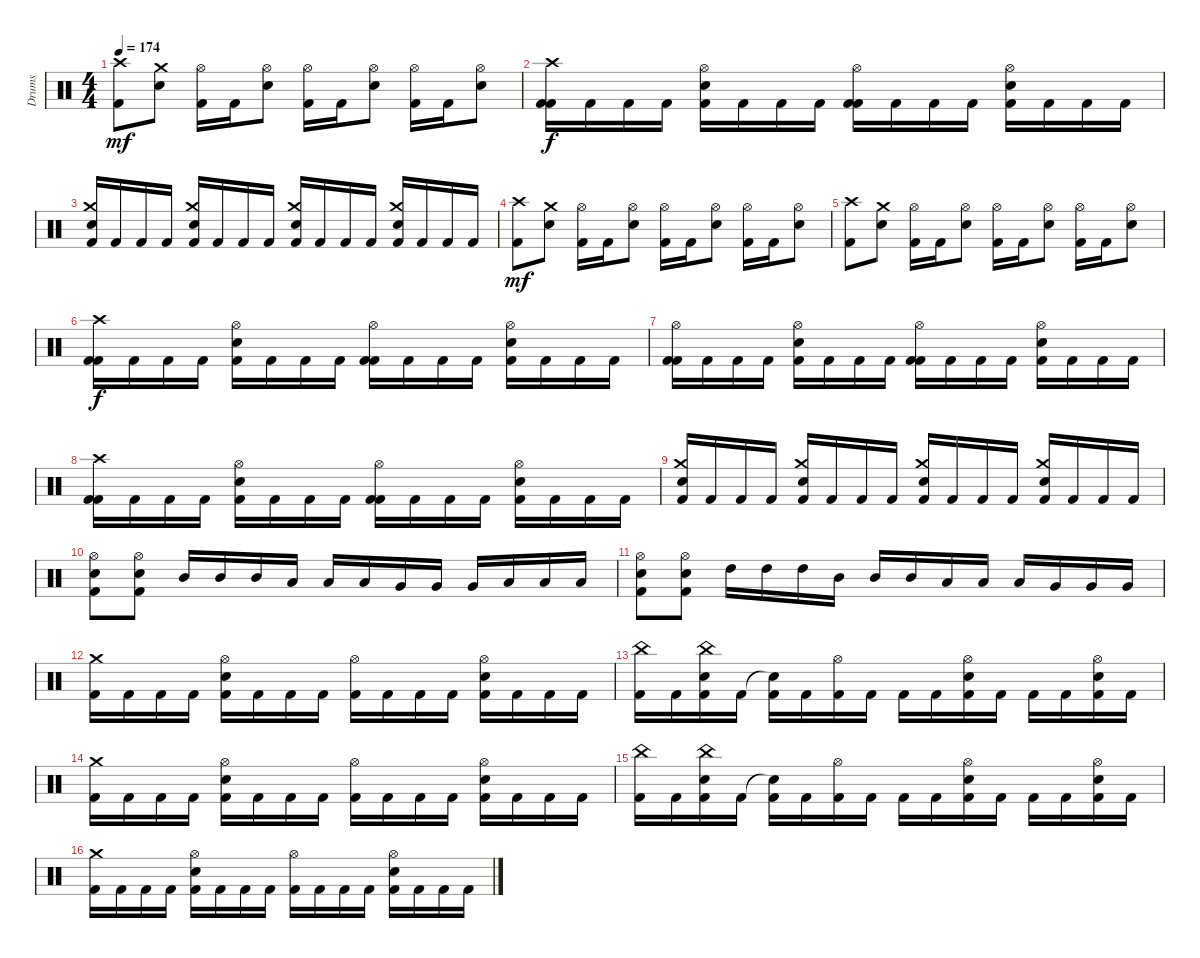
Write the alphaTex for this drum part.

\track ("Drums" "Drums") {instrument percussion}
\staff {score}
\articulation defaults
\ts (4 4)
\tempo 174
\clef neutral
\ks c
("Crash high (hit)" "Kick (hit) 2").8{dy mf} ("Crash medium (hit)" "Electric Snare (hit)").8 ("Hi-Hat (open)" "Kick (hit) 2").16 "Kick (hit) 2".16 ("Hi-Hat (open)" "Electric Snare (hit)").8 ("Hi-Hat (open)" "Kick (hit) 2").16 "Kick (hit) 2".16 ("Hi-Hat (open)" "Electric Snare (hit)").8 ("Hi-Hat (open)" "Kick (hit) 2").16 "Kick (hit) 2".16 ("Hi-Hat (open)" "Electric Snare (hit)").8 |
("Crash high (hit)" "Kick (hit) 2" "Kick (hit) 2").16{dy f} "Kick (hit) 2".16 "Kick (hit) 2".16 "Kick (hit) 2".16 ("Hi-Hat (open)" "Electric Snare (hit)" "Kick (hit) 2").16 "Kick (hit) 2".16 "Kick (hit) 2".16 "Kick (hit) 2".16 ("Hi-Hat (open)" "Kick (hit) 2" "Kick (hit) 2").16 "Kick (hit) 2".16 "Kick (hit) 2".16 "Kick (hit) 2".16 ("Hi-Hat (open)" "Electric Snare (hit)" "Kick (hit) 2").16 "Kick (hit) 2".16 "Kick (hit) 2".16 "Kick (hit) 2".16 |
("Crash medium (hit)" "Electric Snare (hit)" "Kick (hit) 2").16 "Kick (hit) 2".16 "Kick (hit) 2".16 "Kick (hit) 2".16 ("Crash medium (hit)" "Electric Snare (hit)" "Kick (hit) 2").16 "Kick (hit) 2".16 "Kick (hit) 2".16 "Kick (hit) 2".16 ("Crash medium (hit)" "Electric Snare (hit)" "Kick (hit) 2").16 "Kick (hit) 2".16 "Kick (hit) 2".16 "Kick (hit) 2".16 ("Crash medium (hit)" "Electric Snare (hit)" "Kick (hit) 2").16 "Kick (hit) 2".16 "Kick (hit) 2".16 "Kick (hit) 2".16 |
("Crash high (hit)" "Kick (hit) 2").8{dy mf} ("Crash medium (hit)" "Electric Snare (hit)").8 ("Hi-Hat (open)" "Kick (hit) 2").16 "Kick (hit) 2".16 ("Hi-Hat (open)" "Electric Snare (hit)").8 ("Hi-Hat (open)" "Kick (hit) 2").16 "Kick (hit) 2".16 ("Hi-Hat (open)" "Electric Snare (hit)").8 ("Hi-Hat (open)" "Kick (hit) 2").16 "Kick (hit) 2".16 ("Hi-Hat (open)" "Electric Snare (hit)").8 |
("Crash high (hit)" "Kick (hit) 2").8 ("Crash medium (hit)" "Electric Snare (hit)").8 ("Hi-Hat (open)" "Kick (hit) 2").16 "Kick (hit) 2".16 ("Hi-Hat (open)" "Electric Snare (hit)").8 ("Hi-Hat (open)" "Kick (hit) 2").16 "Kick (hit) 2".16 ("Hi-Hat (open)" "Electric Snare (hit)").8 ("Hi-Hat (open)" "Kick (hit) 2").16 "Kick (hit) 2".16 ("Hi-Hat (open)" "Electric Snare (hit)").8 |
("Crash high (hit)" "Kick (hit) 2" "Kick (hit) 2").16{dy f} "Kick (hit) 2".16 "Kick (hit) 2".16 "Kick (hit) 2".16 ("Hi-Hat (open)" "Electric Snare (hit)" "Kick (hit) 2").16 "Kick (hit) 2".16 "Kick (hit) 2".16 "Kick (hit) 2".16 ("Hi-Hat (open)" "Kick (hit) 2" "Kick (hit) 2").16 "Kick (hit) 2".16 "Kick (hit) 2".16 "Kick (hit) 2".16 ("Hi-Hat (open)" "Electric Snare (hit)" "Kick (hit) 2").16 "Kick (hit) 2".16 "Kick (hit) 2".16 "Kick (hit) 2".16 |
("Hi-Hat (open)" "Kick (hit) 2" "Kick (hit) 2").16 "Kick (hit) 2".16 "Kick (hit) 2".16 "Kick (hit) 2".16 ("Hi-Hat (open)" "Electric Snare (hit)" "Kick (hit) 2").16 "Kick (hit) 2".16 "Kick (hit) 2".16 "Kick (hit) 2".16 ("Hi-Hat (open)" "Kick (hit) 2" "Kick (hit) 2").16 "Kick (hit) 2".16 "Kick (hit) 2".16 "Kick (hit) 2".16 ("Hi-Hat (open)" "Electric Snare (hit)" "Kick (hit) 2").16 "Kick (hit) 2".16 "Kick (hit) 2".16 "Kick (hit) 2".16 |
("Crash high (hit)" "Kick (hit) 2" "Kick (hit) 2").16 "Kick (hit) 2".16 "Kick (hit) 2".16 "Kick (hit) 2".16 ("Hi-Hat (open)" "Electric Snare (hit)" "Kick (hit) 2").16 "Kick (hit) 2".16 "Kick (hit) 2".16 "Kick (hit) 2".16 ("Hi-Hat (open)" "Kick (hit) 2" "Kick (hit) 2").16 "Kick (hit) 2".16 "Kick (hit) 2".16 "Kick (hit) 2".16 ("Hi-Hat (open)" "Electric Snare (hit)" "Kick (hit) 2").16 "Kick (hit) 2".16 "Kick (hit) 2".16 "Kick (hit) 2".16 |
("Crash medium (hit)" "Electric Snare (hit)" "Kick (hit) 2").16 "Kick (hit) 2".16 "Kick (hit) 2".16 "Kick (hit) 2".16 ("Crash medium (hit)" "Electric Snare (hit)" "Kick (hit) 2").16 "Kick (hit) 2".16 "Kick (hit) 2".16 "Kick (hit) 2".16 ("Crash medium (hit)" "Electric Snare (hit)" "Kick (hit) 2").16 "Kick (hit) 2".16 "Kick (hit) 2".16 "Kick (hit) 2".16 ("Crash medium (hit)" "Electric Snare (hit)" "Kick (hit) 2").16 "Kick (hit) 2".16 "Kick (hit) 2".16 "Kick (hit) 2".16 |
("Hi-Hat (open)" "Electric Snare (hit)" "Kick (hit) 2").8 ("Hi-Hat (open)" "Electric Snare (hit)" "Kick (hit) 2").8 "Mid Tom (hit)".16 "Mid Tom (hit)".16 "Mid Tom (hit)".16 "Low Tom (hit)".16 "Low Tom (hit)".16 "Low Tom (hit)".16 "Very Low Tom (hit)".16 "Very Low Tom (hit)".16 "Very Low Tom (hit)".16 "Low Floor Tom (hit)".16 "Low Floor Tom (hit)".16 "Low Floor Tom (hit)".16 |
("Hi-Hat (open)" "Electric Snare (hit)" "Kick (hit) 2").8 ("Hi-Hat (open)" "Electric Snare (hit)" "Kick (hit) 2").8 "High Tom (hit)".16 "High Tom (hit)".16 "High Tom (hit)".16 "Mid Tom (hit)".16 "Mid Tom (hit)".16 "Mid Tom (hit)".16 "Low Tom (hit)".16 "Low Tom (hit)".16 "Low Tom (hit)".16 "Very Low Tom (hit)".16 "Very Low Tom (hit)".16 "Very Low Tom (hit)".16 |
("Crash medium (hit)" "Kick (hit) 2").16 "Kick (hit) 2".16 "Kick (hit) 2".16 "Kick (hit) 2".16 ("Hi-Hat (open)" "Kick (hit) 2" "Electric Snare (hit)").16 "Kick (hit) 2".16 "Kick (hit) 2".16 "Kick (hit) 2".16 ("Hi-Hat (open)" "Kick (hit) 2").16 "Kick (hit) 2".16 "Kick (hit) 2".16 "Kick (hit) 2".16 ("Hi-Hat (open)" "Kick (hit) 2" "Electric Snare (hit)").16 "Kick (hit) 2".16 "Kick (hit) 2".16 "Kick (hit) 2".16 |
("China (hit)" "Kick (hit) 2").16 "Kick (hit) 2".16 ("China (hit)" "Kick (hit) 2" "Electric Snare (hit)").16 "Kick (hit) 2".16 ("Snare (hit)"{t} "Kick (hit) 2").16 "Kick (hit) 2".16 ("Hi-Hat (open)" "Kick (hit) 2").16 "Kick (hit) 2".16 "Kick (hit) 2".16 "Kick (hit) 2".16 ("Hi-Hat (open)" "Kick (hit) 2" "Electric Snare (hit)").16 "Kick (hit) 2".16 "Kick (hit) 2".16 "Kick (hit) 2".16 ("Hi-Hat (open)" "Kick (hit) 2" "Electric Snare (hit)").16 "Kick (hit) 2".16 |
("Crash medium (hit)" "Kick (hit) 2").16 "Kick (hit) 2".16 "Kick (hit) 2".16 "Kick (hit) 2".16 ("Hi-Hat (open)" "Kick (hit) 2" "Electric Snare (hit)").16 "Kick (hit) 2".16 "Kick (hit) 2".16 "Kick (hit) 2".16 ("Hi-Hat (open)" "Kick (hit) 2").16 "Kick (hit) 2".16 "Kick (hit) 2".16 "Kick (hit) 2".16 ("Hi-Hat (open)" "Kick (hit) 2" "Electric Snare (hit)").16 "Kick (hit) 2".16 "Kick (hit) 2".16 "Kick (hit) 2".16 |
("China (hit)" "Kick (hit) 2").16 "Kick (hit) 2".16 ("China (hit)" "Kick (hit) 2" "Electric Snare (hit)").16 "Kick (hit) 2".16 ("Snare (hit)"{t} "Kick (hit) 2").16 "Kick (hit) 2".16 ("Hi-Hat (open)" "Kick (hit) 2").16 "Kick (hit) 2".16 "Kick (hit) 2".16 "Kick (hit) 2".16 ("Hi-Hat (open)" "Kick (hit) 2" "Electric Snare (hit)").16 "Kick (hit) 2".16 "Kick (hit) 2".16 "Kick (hit) 2".16 ("Hi-Hat (open)" "Kick (hit) 2" "Electric Snare (hit)").16 "Kick (hit) 2".16 |
("Crash medium (hit)" "Kick (hit) 2").16 "Kick (hit) 2".16 "Kick (hit) 2".16 "Kick (hit) 2".16 ("Hi-Hat (open)" "Kick (hit) 2" "Electric Snare (hit)").16 "Kick (hit) 2".16 "Kick (hit) 2".16 "Kick (hit) 2".16 ("Hi-Hat (open)" "Kick (hit) 2").16 "Kick (hit) 2".16 "Kick (hit) 2".16 "Kick (hit) 2".16 ("Hi-Hat (open)" "Kick (hit) 2" "Electric Snare (hit)").16 "Kick (hit) 2".16 "Kick (hit) 2".16 "Kick (hit) 2".16
